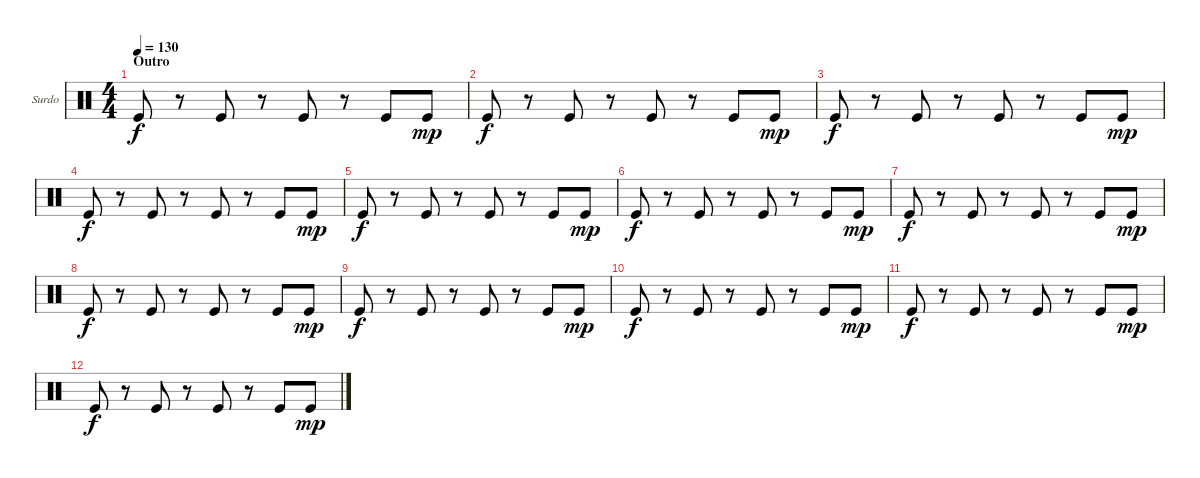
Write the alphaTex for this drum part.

\bracketExtendMode groupsimilarinstruments
\firstSystemTrackNameOrientation horizontal
\otherSystemsTrackNameOrientation horizontal
\track ("Surdo" "Surdo") {instrument percussion}
\staff {score}
\articulation defaults
\ts (4 4)
\section ("" "Outro")
\tempo 130
\clef neutral
\ks c "Kick (hit)".8{dy f}
r.8 "Kick (hit)".8 r.8 "Kick (hit)".8 r.8 "Kick (hit)".8 "Kick (hit)".8{dy mp} |
"Kick (hit)".8{dy f} r.8 "Kick (hit)".8 r.8 "Kick (hit)".8 r.8 "Kick (hit)".8 "Kick (hit)".8{dy mp} |
"Kick (hit)".8{dy f} r.8 "Kick (hit)".8 r.8 "Kick (hit)".8 r.8 "Kick (hit)".8 "Kick (hit)".8{dy mp} |
"Kick (hit)".8{dy f} r.8 "Kick (hit)".8 r.8 "Kick (hit)".8 r.8 "Kick (hit)".8 "Kick (hit)".8{dy mp} |
"Kick (hit)".8{dy f} r.8 "Kick (hit)".8 r.8 "Kick (hit)".8 r.8 "Kick (hit)".8 "Kick (hit)".8{dy mp} |
"Kick (hit)".8{dy f} r.8 "Kick (hit)".8 r.8 "Kick (hit)".8 r.8 "Kick (hit)".8 "Kick (hit)".8{dy mp} |
"Kick (hit)".8{dy f} r.8 "Kick (hit)".8 r.8 "Kick (hit)".8 r.8 "Kick (hit)".8 "Kick (hit)".8{dy mp} |
"Kick (hit)".8{dy f} r.8 "Kick (hit)".8 r.8 "Kick (hit)".8 r.8 "Kick (hit)".8 "Kick (hit)".8{dy mp} |
"Kick (hit)".8{dy f} r.8 "Kick (hit)".8 r.8 "Kick (hit)".8 r.8 "Kick (hit)".8 "Kick (hit)".8{dy mp} |
"Kick (hit)".8{dy f} r.8 "Kick (hit)".8 r.8 "Kick (hit)".8 r.8 "Kick (hit)".8 "Kick (hit)".8{dy mp} |
"Kick (hit)".8{dy f} r.8 "Kick (hit)".8 r.8 "Kick (hit)".8 r.8 "Kick (hit)".8 "Kick (hit)".8{dy mp} |
"Kick (hit)".8{dy f} r.8 "Kick (hit)".8 r.8 "Kick (hit)".8 r.8 "Kick (hit)".8 "Kick (hit)".8{dy mp}
